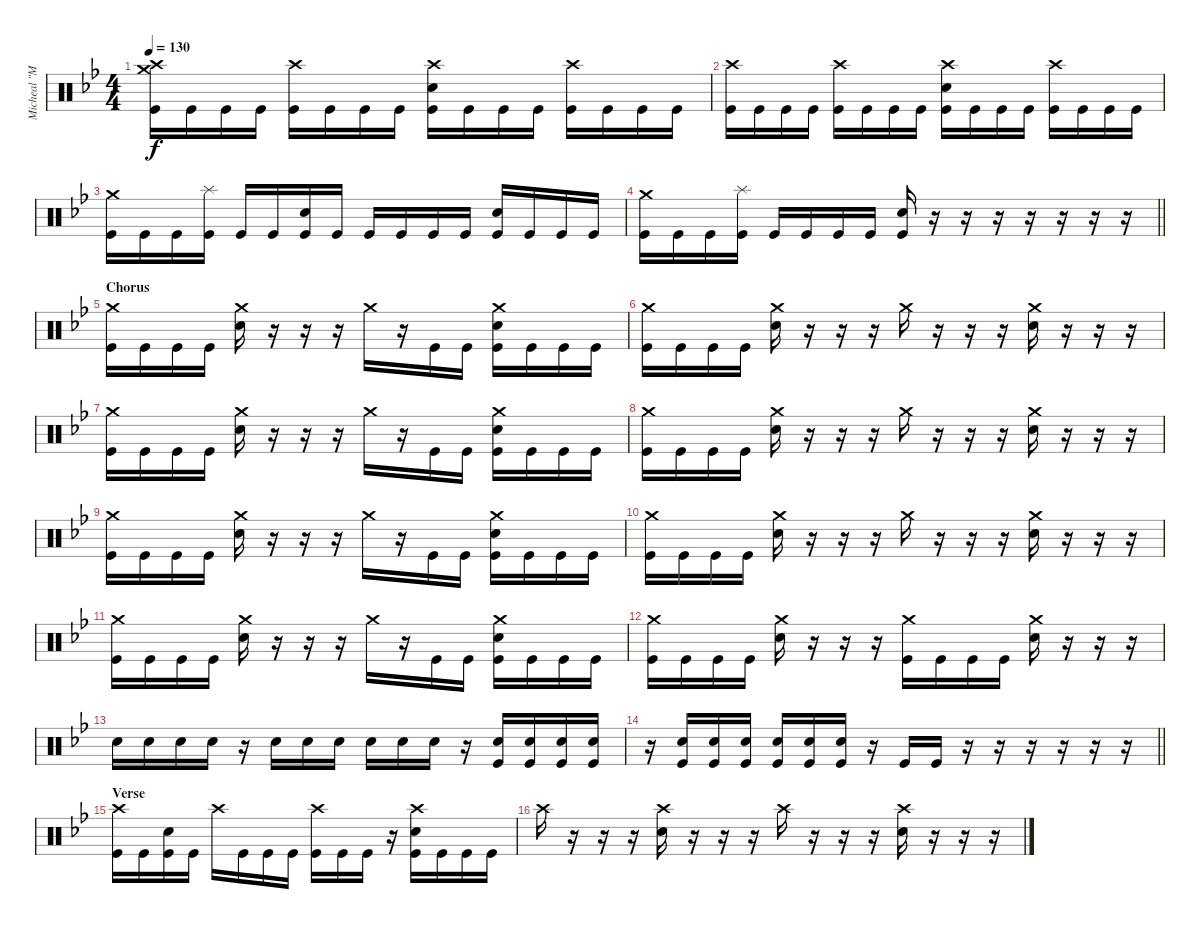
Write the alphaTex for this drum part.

\track ("Micheal \"Moose\" Thomas" "Micheal \"M") {instrument percussion}
\staff {score}
\articulation defaults
\ts (4 4)
\tempo 130
\clef neutral
\ks bb
("Crash high (hit)" "Crash medium (hit)" "Kick (hit)").16{dy f} "Kick (hit)".16 "Kick (hit)".16 "Kick (hit)".16 ("Crash high (hit)" "Kick (hit)").16 "Kick (hit)".16 "Kick (hit)".16 "Kick (hit)".16 ("Crash high (hit)" "Snare (hit) 2" "Kick (hit)").16 "Kick (hit)".16 "Kick (hit)".16 "Kick (hit)".16 ("Crash high (hit)" "Kick (hit)").16 "Kick (hit)".16 "Kick (hit)".16 "Kick (hit)".16 |
("Crash high (hit)" "Kick (hit)").16 "Kick (hit)".16 "Kick (hit)".16 "Kick (hit)".16 ("Crash high (hit)" "Kick (hit)").16 "Kick (hit)".16 "Kick (hit)".16 "Kick (hit)".16 ("Crash high (hit)" "Snare (hit) 2" "Kick (hit)").16 "Kick (hit)".16 "Kick (hit)".16 "Kick (hit)".16 ("Crash high (hit)" "Kick (hit)").16 "Kick (hit)".16 "Kick (hit)".16 "Kick (hit)".16 |
("Crash medium (hit)" "Kick (hit)").16 "Kick (hit)".16 "Kick (hit)".16 ("Splash (hit)" "Kick (hit)").16 "Kick (hit)".16 "Kick (hit)".16 ("Snare (hit) 2" "Kick (hit)").16 "Kick (hit)".16 "Kick (hit)".16 "Kick (hit)".16 "Kick (hit)".16 "Kick (hit)".16 ("Snare (hit) 2" "Kick (hit)").16 "Kick (hit)".16 "Kick (hit)".16 "Kick (hit)".16 |
\barLineRight lightlight
("Crash medium (hit)" "Kick (hit)").16 "Kick (hit)".16 "Kick (hit)".16 ("Splash (hit)" "Kick (hit)").16 "Kick (hit)".16 "Kick (hit)".16 "Kick (hit)".16 "Kick (hit)".16 ("Snare (hit) 2" "Kick (hit)").16 r.16 r.16 r.16 r.16 r.16 r.16 r.16 |
\section ("" "Chorus")
("Crash medium (hit)" "Kick (hit)").16 "Kick (hit)".16 "Kick (hit)".16 "Kick (hit)".16 ("Crash medium (hit)" "Snare (hit) 2").16 r.16 r.16 r.16 "Crash medium (hit)".16 r.16 "Kick (hit)".16 "Kick (hit)".16 ("Crash medium (hit)" "Snare (hit) 2" "Kick (hit)").16 "Kick (hit)".16 "Kick (hit)".16 "Kick (hit)".16 |
("Crash medium (hit)" "Kick (hit)").16 "Kick (hit)".16 "Kick (hit)".16 "Kick (hit)".16 ("Crash medium (hit)" "Snare (hit) 2").16 r.16 r.16 r.16 "Crash medium (hit)".16 r.16 r.16 r.16 ("Crash medium (hit)" "Snare (hit) 2").16 r.16 r.16 r.16 |
("Crash medium (hit)" "Kick (hit)").16 "Kick (hit)".16 "Kick (hit)".16 "Kick (hit)".16 ("Crash medium (hit)" "Snare (hit) 2").16 r.16 r.16 r.16 "Crash medium (hit)".16 r.16 "Kick (hit)".16 "Kick (hit)".16 ("Crash medium (hit)" "Snare (hit) 2" "Kick (hit)").16 "Kick (hit)".16 "Kick (hit)".16 "Kick (hit)".16 |
("Crash medium (hit)" "Kick (hit)").16 "Kick (hit)".16 "Kick (hit)".16 "Kick (hit)".16 ("Crash medium (hit)" "Snare (hit) 2").16 r.16 r.16 r.16 "Crash medium (hit)".16 r.16 r.16 r.16 ("Crash medium (hit)" "Snare (hit) 2").16 r.16 r.16 r.16 |
("Crash medium (hit)" "Kick (hit)").16 "Kick (hit)".16 "Kick (hit)".16 "Kick (hit)".16 ("Crash medium (hit)" "Snare (hit) 2").16 r.16 r.16 r.16 "Crash medium (hit)".16 r.16 "Kick (hit)".16 "Kick (hit)".16 ("Crash medium (hit)" "Snare (hit) 2" "Kick (hit)").16 "Kick (hit)".16 "Kick (hit)".16 "Kick (hit)".16 |
("Crash medium (hit)" "Kick (hit)").16 "Kick (hit)".16 "Kick (hit)".16 "Kick (hit)".16 ("Crash medium (hit)" "Snare (hit) 2").16 r.16 r.16 r.16 "Crash medium (hit)".16 r.16 r.16 r.16 ("Crash medium (hit)" "Snare (hit) 2").16 r.16 r.16 r.16 |
("Crash medium (hit)" "Kick (hit)").16 "Kick (hit)".16 "Kick (hit)".16 "Kick (hit)".16 ("Crash medium (hit)" "Snare (hit) 2").16 r.16 r.16 r.16 "Crash medium (hit)".16 r.16 "Kick (hit)".16 "Kick (hit)".16 ("Crash medium (hit)" "Snare (hit) 2" "Kick (hit)").16 "Kick (hit)".16 "Kick (hit)".16 "Kick (hit)".16 |
("Crash medium (hit)" "Kick (hit)").16 "Kick (hit)".16 "Kick (hit)".16 "Kick (hit)".16 ("Crash medium (hit)" "Snare (hit) 2").16 r.16 r.16 r.16 ("Crash medium (hit)" "Kick (hit)").16 "Kick (hit)".16 "Kick (hit)".16 "Kick (hit)".16 ("Crash medium (hit)" "Snare (hit) 2").16 r.16 r.16 r.16 |
"Snare (hit) 2".16 "Snare (hit) 2".16 "Snare (hit) 2".16 "Snare (hit) 2".16 r.16 "Snare (hit) 2".16 "Snare (hit) 2".16 "Snare (hit) 2".16 "Snare (hit) 2".16 "Snare (hit) 2".16 "Snare (hit) 2".16 r.16 ("Snare (hit) 2" "Kick (hit)").16 ("Snare (hit) 2" "Kick (hit)").16 ("Snare (hit) 2" "Kick (hit)").16 ("Snare (hit) 2" "Kick (hit)").16 |
\barLineRight lightlight
r.16 ("Snare (hit) 2" "Kick (hit)").16 ("Snare (hit) 2" "Kick (hit)").16 ("Snare (hit) 2" "Kick (hit)").16 ("Snare (hit) 2" "Kick (hit)").16 ("Snare (hit) 2" "Kick (hit)").16 ("Snare (hit) 2" "Kick (hit)").16 r.16 "Kick (hit)".16 "Kick (hit)".16 r.16 r.16 r.16 r.16 r.16 r.16 |
\section ("" "Verse")
("Crash high (hit)" "Kick (hit)").16 "Kick (hit)".16 ("Snare (hit) 2" "Kick (hit)").16 "Kick (hit)".16 "Crash high (hit)".16 "Kick (hit)".16 "Kick (hit)".16 "Kick (hit)".16 ("Crash high (hit)" "Kick (hit)").16 "Kick (hit)".16 "Kick (hit)".16 r.16 ("Crash high (hit)" "Snare (hit) 2" "Kick (hit)").16 "Kick (hit)".16 "Kick (hit)".16 "Kick (hit)".16 |
"Crash high (hit)".16 r.16 r.16 r.16 ("Crash high (hit)" "Snare (hit) 2").16 r.16 r.16 r.16 "Crash high (hit)".16 r.16 r.16 r.16 ("Crash high (hit)" "Snare (hit) 2").16 r.16 r.16 r.16
